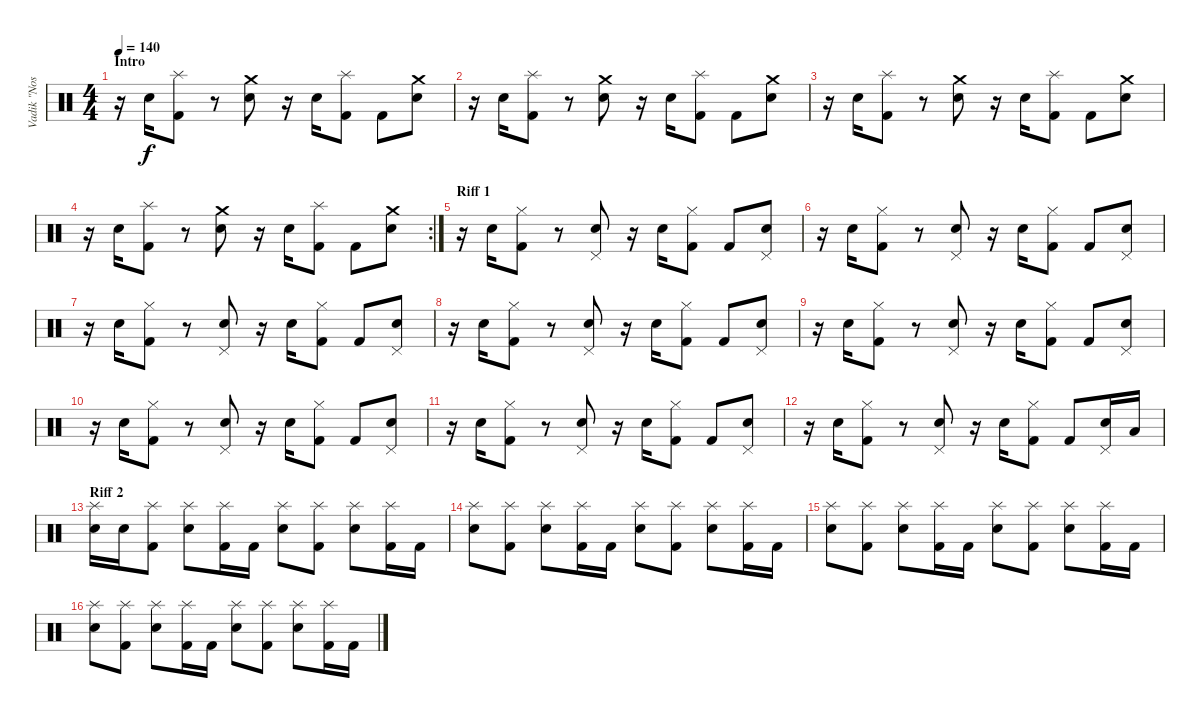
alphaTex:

\track ("Vadik \"Nos\"" "Vadik \"Nos") {instrument percussion}
\staff {score}
\articulation defaults
\ts (4 4)
\section ("" "Intro")
\tempo 140
\clef neutral
\ks c
r.16{dy f} "Snare (hit) 2".16 ("Kick (hit) 2" "Splash (hit)").8 r.8 ("Snare (hit) 2" "Crash medium (hit)").8 r.16 "Snare (hit) 2".16 ("Kick (hit) 2" "Splash (hit)").8 "Kick (hit) 2".8 ("Snare (hit) 2" "Crash medium (hit)").8 |
r.16 "Snare (hit) 2".16 ("Kick (hit) 2" "Splash (hit)").8 r.8 ("Snare (hit) 2" "Crash medium (hit)").8 r.16 "Snare (hit) 2".16 ("Kick (hit) 2" "Splash (hit)").8 "Kick (hit) 2".8 ("Snare (hit) 2" "Crash medium (hit)").8 |
r.16 "Snare (hit) 2".16 ("Kick (hit) 2" "Splash (hit)").8 r.8 ("Snare (hit) 2" "Crash medium (hit)").8 r.16 "Snare (hit) 2".16 ("Kick (hit) 2" "Splash (hit)").8 "Kick (hit) 2".8 ("Snare (hit) 2" "Crash medium (hit)").8 |
\rc 2
r.16 "Snare (hit) 2".16 ("Kick (hit) 2" "Splash (hit)").8 r.8 ("Snare (hit) 2" "Crash medium (hit)").8 r.16 "Snare (hit) 2".16 ("Kick (hit) 2" "Splash (hit)").8 "Kick (hit) 2".8 ("Snare (hit) 2" "Crash medium (hit)").8 |
\section ("" "Riff 1")
r.16 "Snare (hit) 2".16 ("Kick (hit) 2" "Hi-Hat (closed)").8 r.8 ("Snare (hit) 2" "Pedal Hi-Hat (hit)").8 r.16 "Snare (hit) 2".16 ("Kick (hit) 2" "Hi-Hat (closed)").8 "Kick (hit) 2".8 ("Snare (hit) 2" "Pedal Hi-Hat (hit)").8 |
r.16 "Snare (hit) 2".16 ("Kick (hit) 2" "Hi-Hat (closed)").8 r.8 ("Snare (hit) 2" "Pedal Hi-Hat (hit)").8 r.16 "Snare (hit) 2".16 ("Kick (hit) 2" "Hi-Hat (closed)").8 "Kick (hit) 2".8 ("Snare (hit) 2" "Pedal Hi-Hat (hit)").8 |
r.16 "Snare (hit) 2".16 ("Kick (hit) 2" "Hi-Hat (closed)").8 r.8 ("Snare (hit) 2" "Pedal Hi-Hat (hit)").8 r.16 "Snare (hit) 2".16 ("Kick (hit) 2" "Hi-Hat (closed)").8 "Kick (hit) 2".8 ("Snare (hit) 2" "Pedal Hi-Hat (hit)").8 |
r.16 "Snare (hit) 2".16 ("Kick (hit) 2" "Hi-Hat (closed)").8 r.8 ("Snare (hit) 2" "Pedal Hi-Hat (hit)").8 r.16 "Snare (hit) 2".16 ("Kick (hit) 2" "Hi-Hat (closed)").8 "Kick (hit) 2".8 ("Snare (hit) 2" "Pedal Hi-Hat (hit)").8 |
r.16 "Snare (hit) 2".16 ("Kick (hit) 2" "Hi-Hat (closed)").8 r.8 ("Snare (hit) 2" "Pedal Hi-Hat (hit)").8 r.16 "Snare (hit) 2".16 ("Kick (hit) 2" "Hi-Hat (closed)").8 "Kick (hit) 2".8 ("Snare (hit) 2" "Pedal Hi-Hat (hit)").8 |
r.16 "Snare (hit) 2".16 ("Kick (hit) 2" "Hi-Hat (closed)").8 r.8 ("Snare (hit) 2" "Pedal Hi-Hat (hit)").8 r.16 "Snare (hit) 2".16 ("Kick (hit) 2" "Hi-Hat (closed)").8 "Kick (hit) 2".8 ("Snare (hit) 2" "Pedal Hi-Hat (hit)").8 |
r.16 "Snare (hit) 2".16 ("Kick (hit) 2" "Hi-Hat (closed)").8 r.8 ("Snare (hit) 2" "Pedal Hi-Hat (hit)").8 r.16 "Snare (hit) 2".16 ("Kick (hit) 2" "Hi-Hat (closed)").8 "Kick (hit) 2".8 ("Snare (hit) 2" "Pedal Hi-Hat (hit)").8 |
r.16 "Snare (hit) 2".16 ("Kick (hit) 2" "Hi-Hat (closed)").8 r.8 ("Snare (hit) 2" "Pedal Hi-Hat (hit)").8 r.16 "Snare (hit) 2".16 ("Kick (hit) 2" "Hi-Hat (closed)").8 "Kick (hit) 2".8 ("Snare (hit) 2" "Pedal Hi-Hat (hit)").16 "Low Tom (hit)".16 |
\section ("" "Riff 2")
("Electric Snare (hit)" "Splash (hit)").16 "Snare (hit) 2".16 ("Kick (hit) 2" "Splash (hit)").8 ("Snare (hit) 2" "Splash (hit)").8 ("Kick (hit) 2" "Splash (hit)").16 "Kick (hit) 2".16 ("Snare (hit) 2" "Splash (hit)").8 ("Kick (hit) 2" "Splash (hit)").8 ("Snare (hit) 2" "Splash (hit)").8 ("Kick (hit) 2" "Splash (hit)").16 "Kick (hit) 2".16 |
("Snare (hit) 2" "Splash (hit)").8 ("Kick (hit) 2" "Splash (hit)").8 ("Snare (hit) 2" "Splash (hit)").8 ("Kick (hit) 2" "Splash (hit)").16 "Kick (hit) 2".16 ("Snare (hit) 2" "Splash (hit)").8 ("Kick (hit) 2" "Splash (hit)").8 ("Snare (hit) 2" "Splash (hit)").8 ("Kick (hit) 2" "Splash (hit)").16 "Kick (hit) 2".16 |
("Snare (hit) 2" "Splash (hit)").8 ("Kick (hit) 2" "Splash (hit)").8 ("Snare (hit) 2" "Splash (hit)").8 ("Kick (hit) 2" "Splash (hit)").16 "Kick (hit) 2".16 ("Snare (hit) 2" "Splash (hit)").8 ("Kick (hit) 2" "Splash (hit)").8 ("Snare (hit) 2" "Splash (hit)").8 ("Kick (hit) 2" "Splash (hit)").16 "Kick (hit) 2".16 |
("Snare (hit) 2" "Splash (hit)").8 ("Kick (hit) 2" "Splash (hit)").8 ("Snare (hit) 2" "Splash (hit)").8 ("Kick (hit) 2" "Splash (hit)").16 "Kick (hit) 2".16 ("Snare (hit) 2" "Splash (hit)").8 ("Kick (hit) 2" "Splash (hit)").8 ("Snare (hit) 2" "Splash (hit)").8 ("Kick (hit) 2" "Splash (hit)").16 "Kick (hit) 2".16
